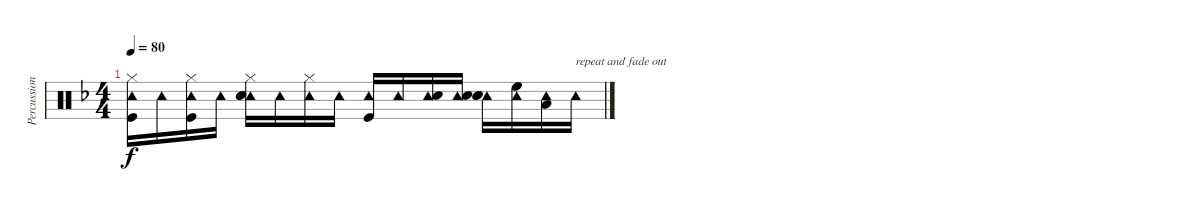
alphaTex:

\track ("Percussion" "Percussion") {instrument percussion}
\staff {score}
\articulation defaults
\ts (4 4)
\tempo 80
\clef neutral
\ks f
("Hi-Hat (closed)" "Tambourine (hit)" "Kick (hit)").16{dy f} "Tambourine (hit)".16 ("Hi-Hat (closed)" "Tambourine (hit)" "Kick (hit)").16 "Tambourine (hit)".16 ("Hi-Hat (closed)" "Tambourine (hit)" "Snare (hit) 2" "Hand Clap (hit)").16 "Tambourine (hit)".16 ("Hi-Hat (closed)" "Tambourine (hit)").16 "Tambourine (hit)".16 ("Tambourine (hit)" "Kick (hit)").16 "Tambourine (hit)".16 ("Tambourine (hit)" "Snare (hit) 2").16 ("Tambourine (hit)" "Snare (hit) 2").16 ("Tambourine (hit)" "Snare (hit) 2" "Hand Clap (hit)").16 ("Tambourine (hit)" "High Floor Tom (hit)").16 ("Tambourine (hit)" "Low Tom (hit)").16 "Tambourine (hit)".16{txt "repeat and fade out"}
